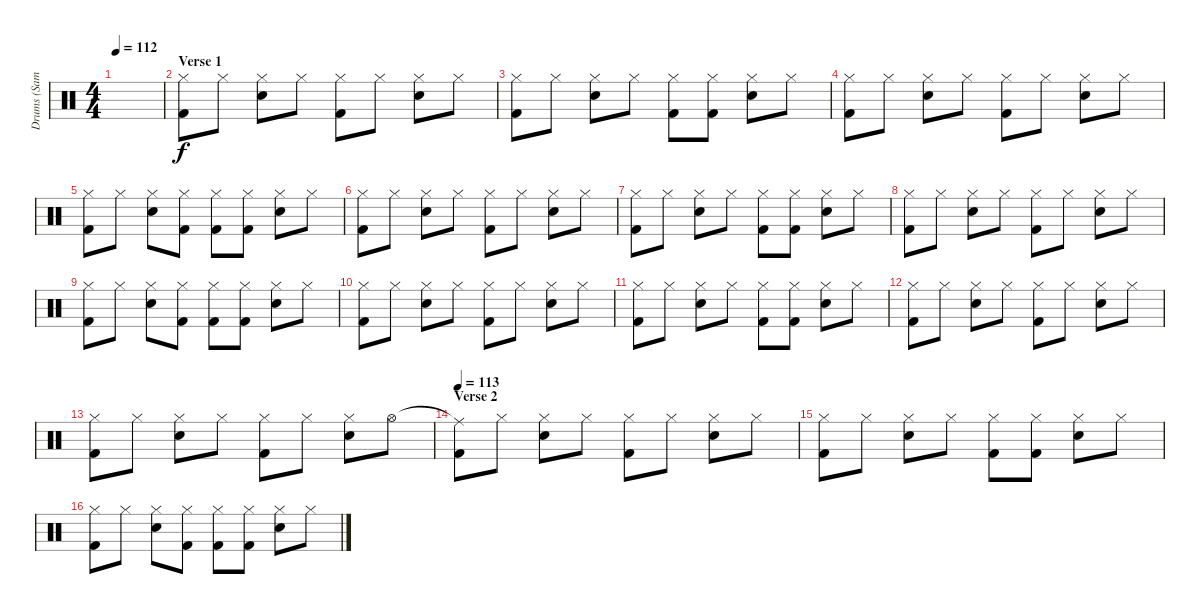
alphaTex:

\track ("Drums (Sam)" "Drums (Sam") {instrument percussion}
\staff {score}
\articulation defaults
\ts (4 4)
\tempo 112
\clef neutral
\ks c
|
\section ("" "Verse 1")
("Hi-Hat (closed)" "Kick (hit) 2").8 "Hi-Hat (closed)".8 ("Hi-Hat (closed)" "Snare (hit) 2").8 "Hi-Hat (closed)".8 ("Hi-Hat (closed)" "Kick (hit) 2").8 "Hi-Hat (closed)".8 ("Hi-Hat (closed)" "Snare (hit) 2").8 "Hi-Hat (closed)".8 |
("Hi-Hat (closed)" "Kick (hit) 2").8 "Hi-Hat (closed)".8 ("Hi-Hat (closed)" "Snare (hit) 2").8 "Hi-Hat (closed)".8 ("Hi-Hat (closed)" "Kick (hit) 2").8 ("Hi-Hat (closed)" "Kick (hit) 2").8 ("Hi-Hat (closed)" "Snare (hit) 2").8 "Hi-Hat (closed)".8 |
("Hi-Hat (closed)" "Kick (hit) 2").8 "Hi-Hat (closed)".8 ("Hi-Hat (closed)" "Snare (hit) 2").8 "Hi-Hat (closed)".8 ("Hi-Hat (closed)" "Kick (hit) 2").8 "Hi-Hat (closed)".8 ("Hi-Hat (closed)" "Snare (hit) 2").8 "Hi-Hat (closed)".8 |
("Hi-Hat (closed)" "Kick (hit) 2").8 "Hi-Hat (closed)".8 ("Hi-Hat (closed)" "Snare (hit) 2").8 ("Hi-Hat (closed)" "Kick (hit) 2").8 ("Hi-Hat (closed)" "Kick (hit) 2").8 ("Hi-Hat (closed)" "Kick (hit) 2").8 ("Hi-Hat (closed)" "Snare (hit) 2").8 "Hi-Hat (closed)".8 |
("Hi-Hat (closed)" "Kick (hit) 2").8 "Hi-Hat (closed)".8 ("Hi-Hat (closed)" "Snare (hit) 2").8 "Hi-Hat (closed)".8 ("Hi-Hat (closed)" "Kick (hit) 2").8 "Hi-Hat (closed)".8 ("Hi-Hat (closed)" "Snare (hit) 2").8 "Hi-Hat (closed)".8 |
("Hi-Hat (closed)" "Kick (hit) 2").8 "Hi-Hat (closed)".8 ("Hi-Hat (closed)" "Snare (hit) 2").8 "Hi-Hat (closed)".8 ("Hi-Hat (closed)" "Kick (hit) 2").8 ("Hi-Hat (closed)" "Kick (hit) 2").8 ("Hi-Hat (closed)" "Snare (hit) 2").8 "Hi-Hat (closed)".8 |
("Hi-Hat (closed)" "Kick (hit) 2").8 "Hi-Hat (closed)".8 ("Hi-Hat (closed)" "Snare (hit) 2").8 "Hi-Hat (closed)".8 ("Hi-Hat (closed)" "Kick (hit) 2").8 "Hi-Hat (closed)".8 ("Hi-Hat (closed)" "Snare (hit) 2").8 "Hi-Hat (closed)".8 |
("Hi-Hat (closed)" "Kick (hit) 2").8 "Hi-Hat (closed)".8 ("Hi-Hat (closed)" "Snare (hit) 2").8 ("Hi-Hat (closed)" "Kick (hit) 2").8 ("Hi-Hat (closed)" "Kick (hit) 2").8 ("Hi-Hat (closed)" "Kick (hit) 2").8 ("Hi-Hat (closed)" "Snare (hit) 2").8 "Hi-Hat (closed)".8 |
("Hi-Hat (closed)" "Kick (hit) 2").8 "Hi-Hat (closed)".8 ("Hi-Hat (closed)" "Snare (hit) 2").8 "Hi-Hat (closed)".8 ("Hi-Hat (closed)" "Kick (hit) 2").8 "Hi-Hat (closed)".8 ("Hi-Hat (closed)" "Snare (hit) 2").8 "Hi-Hat (closed)".8 |
("Hi-Hat (closed)" "Kick (hit) 2").8 "Hi-Hat (closed)".8 ("Hi-Hat (closed)" "Snare (hit) 2").8 "Hi-Hat (closed)".8 ("Hi-Hat (closed)" "Kick (hit) 2").8 ("Hi-Hat (closed)" "Kick (hit) 2").8 ("Hi-Hat (closed)" "Snare (hit) 2").8 "Hi-Hat (closed)".8 |
("Hi-Hat (closed)" "Kick (hit) 2").8 "Hi-Hat (closed)".8 ("Hi-Hat (closed)" "Snare (hit) 2").8 "Hi-Hat (closed)".8 ("Hi-Hat (closed)" "Kick (hit) 2").8 "Hi-Hat (closed)".8 ("Hi-Hat (closed)" "Snare (hit) 2").8 "Hi-Hat (closed)".8 |
("Hi-Hat (closed)" "Kick (hit) 2").8 "Hi-Hat (closed)".8 ("Hi-Hat (closed)" "Snare (hit) 2").8 "Hi-Hat (closed)".8 ("Hi-Hat (closed)" "Kick (hit) 2").8 "Hi-Hat (closed)".8 ("Hi-Hat (closed)" "Snare (hit) 2").8 "Hi-Hat (open)".8 |
\section ("" "Verse 2")
\tempo 113
("Ride (middle)"{t} "Kick (hit) 2").8 "Hi-Hat (closed)".8 ("Hi-Hat (closed)" "Snare (hit) 2").8 "Hi-Hat (closed)".8 ("Hi-Hat (closed)" "Kick (hit) 2").8 "Hi-Hat (closed)".8 ("Hi-Hat (closed)" "Snare (hit) 2").8 "Hi-Hat (closed)".8 |
("Hi-Hat (closed)" "Kick (hit) 2").8 "Hi-Hat (closed)".8 ("Hi-Hat (closed)" "Snare (hit) 2").8 "Hi-Hat (closed)".8 ("Hi-Hat (closed)" "Kick (hit) 2").8 ("Hi-Hat (closed)" "Kick (hit) 2").8 ("Hi-Hat (closed)" "Snare (hit) 2").8 "Hi-Hat (closed)".8 |
("Hi-Hat (closed)" "Kick (hit) 2").8 "Hi-Hat (closed)".8 ("Hi-Hat (closed)" "Snare (hit) 2").8 ("Hi-Hat (closed)" "Kick (hit) 2").8 ("Hi-Hat (closed)" "Kick (hit) 2").8 ("Hi-Hat (closed)" "Kick (hit) 2").8 ("Hi-Hat (closed)" "Snare (hit) 2").8 "Hi-Hat (closed)".8
